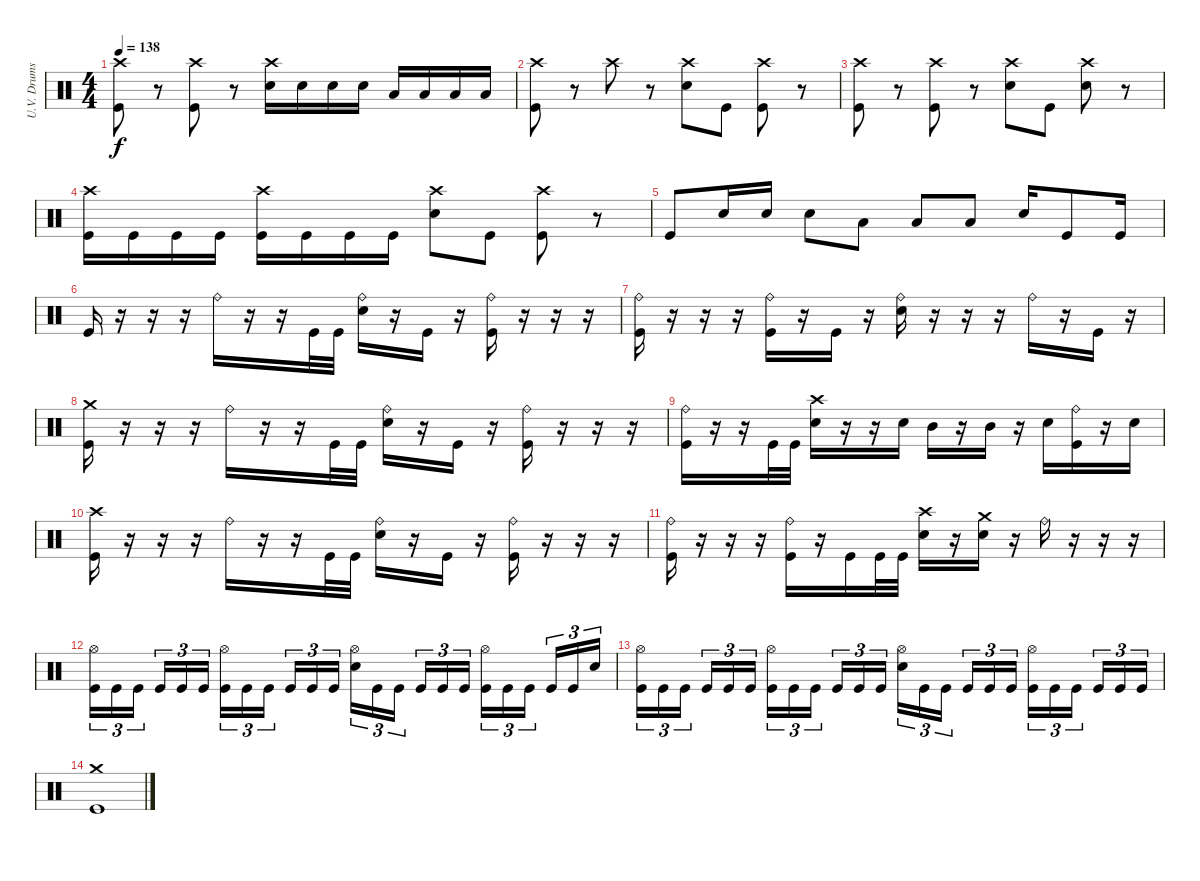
\track ("U.V. Drums" "U.V. Drums") {instrument percussion}
\staff {score}
\articulation defaults
\ts (4 4)
\tempo 138
\clef neutral
\ks c
("Crash high (hit)" "Kick (hit)").8{dy f} r.8 ("Crash high (hit)" "Kick (hit)").8 r.8 ("Crash high (hit)" "Electric Snare (hit)").16 "Electric Snare (hit)".16 "Electric Snare (hit)".16 "Electric Snare (hit)".16 "Low Tom (hit)".16 "Low Tom (hit)".16 "Low Tom (hit)".16 "Low Tom (hit)".16 |
("Crash high (hit)" "Kick (hit)").8 r.8 "Crash high (hit)".8 r.8 ("Crash high (hit)" "Electric Snare (hit)").8 "Kick (hit)".8 ("Crash high (hit)" "Kick (hit)").8 r.8 |
("Crash high (hit)" "Kick (hit)").8 r.8 ("Crash high (hit)" "Kick (hit)").8 r.8 ("Crash high (hit)" "Electric Snare (hit)").8 "Kick (hit)".8 ("Crash high (hit)" "Electric Snare (hit)").8 r.8 |
("Crash high (hit)" "Kick (hit)").16 "Kick (hit)".16 "Kick (hit)".16 "Kick (hit)".16 ("Crash high (hit)" "Kick (hit)").16 "Kick (hit)".16 "Kick (hit)".16 "Kick (hit)".16 ("Crash high (hit)" "Electric Snare (hit)").8 "Kick (hit)".8 ("Crash high (hit)" "Kick (hit)").8 r.8 |
"Kick (hit)".8 "Electric Snare (hit)".16 "Electric Snare (hit)".16 "Electric Snare (hit)".8 "Low Tom (hit)".8 "Low Tom (hit)".8 "Low Tom (hit)".8 "Electric Snare (hit)".16 "Kick (hit)".8 "Kick (hit)".16 |
"Kick (hit)".16 r.16 r.16 r.16 "Ride (bell)".16 r.16 r.16 "Kick (hit)".32 "Kick (hit)".32 ("Ride (bell)" "Electric Snare (hit)").16 r.16 "Kick (hit)".16 r.16 ("Ride (bell)" "Kick (hit)").16 r.16 r.16 r.16 |
("Ride (bell)" "Kick (hit)").16 r.16 r.16 r.16 ("Ride (bell)" "Kick (hit)").16 r.16 "Kick (hit)".16 r.16 ("Ride (bell)" "Electric Snare (hit)").16 r.16 r.16 r.16 "Ride (bell)".16 r.16 "Kick (hit)".16 r.16 |
("Crash medium (hit)" "Kick (hit)").16 r.16 r.16 r.16 "Ride (bell)".16 r.16 r.16 "Kick (hit)".32 "Kick (hit)".32 ("Ride (bell)" "Electric Snare (hit)").16 r.16 "Kick (hit)".16 r.16 ("Ride (bell)" "Kick (hit)").16 r.16 r.16 r.16 |
("Ride (bell)" "Kick (hit)").16 r.16 r.16 "Kick (hit)".32 "Kick (hit)".32 ("Crash high (hit)" "Electric Snare (hit)").16 r.16 r.16 "Electric Snare (hit)".16 "Mid Tom (hit)".16 r.16 "Mid Tom (hit)".16 r.16 "Electric Snare (hit)".16 ("Ride (bell)" "Kick (hit)").16 r.16 "Electric Snare (hit)".16 |
("Crash high (hit)" "Kick (hit)").16 r.16 r.16 r.16 "Ride (bell)".16 r.16 r.16 "Kick (hit)".32 "Kick (hit)".32 ("Ride (bell)" "Electric Snare (hit)").16 r.16 "Kick (hit)".16 r.16 ("Ride (bell)" "Kick (hit)").16 r.16 r.16 r.16 |
("Ride (bell)" "Kick (hit)").16 r.16 r.16 r.16 ("Ride (bell)" "Kick (hit)").16 r.16 "Kick (hit)".16 "Kick (hit)".32 "Kick (hit)".32 ("Crash high (hit)" "Electric Snare (hit)").16 r.16 ("Crash medium (hit)" "Electric Snare (hit)").16 r.16 "Ride (bell)".16 r.16 r.16 r.16 |
("Hi-Hat (open)" "Kick (hit)").16{tu (3 2)} "Kick (hit)".16{tu (3 2)} "Kick (hit)".16{tu (3 2)} "Kick (hit)".16{tu (3 2)} "Kick (hit)".16{tu (3 2)} "Kick (hit)".16{tu (3 2)} ("Hi-Hat (open)" "Kick (hit)").16{tu (3 2)} "Kick (hit)".16{tu (3 2)} "Kick (hit)".16{tu (3 2)} "Kick (hit)".16{tu (3 2)} "Kick (hit)".16{tu (3 2)} "Kick (hit)".16{tu (3 2)} ("Hi-Hat (open)" "Electric Snare (hit)").16{tu (3 2)} "Kick (hit)".16{tu (3 2)} "Kick (hit)".16{tu (3 2)} "Kick (hit)".16{tu (3 2)} "Kick (hit)".16{tu (3 2)} "Kick (hit)".16{tu (3 2)} ("Hi-Hat (open)" "Kick (hit)").16{tu (3 2)} "Kick (hit)".16{tu (3 2)} "Kick (hit)".16{tu (3 2)} "Kick (hit)".16{tu (3 2)} "Kick (hit)".16{tu (3 2)} "Snare (hit)".16{tu (3 2)} |
("Hi-Hat (open)" "Kick (hit)").16{tu (3 2)} "Kick (hit)".16{tu (3 2)} "Kick (hit)".16{tu (3 2)} "Kick (hit)".16{tu (3 2)} "Kick (hit)".16{tu (3 2)} "Kick (hit)".16{tu (3 2)} ("Hi-Hat (open)" "Kick (hit)").16{tu (3 2)} "Kick (hit)".16{tu (3 2)} "Kick (hit)".16{tu (3 2)} "Kick (hit)".16{tu (3 2)} "Kick (hit)".16{tu (3 2)} "Kick (hit)".16{tu (3 2)} ("Hi-Hat (open)" "Electric Snare (hit)").16{tu (3 2)} "Kick (hit)".16{tu (3 2)} "Kick (hit)".16{tu (3 2)} "Kick (hit)".16{tu (3 2)} "Kick (hit)".16{tu (3 2)} "Kick (hit)".16{tu (3 2)} ("Hi-Hat (open)" "Kick (hit)").16{tu (3 2)} "Kick (hit)".16{tu (3 2)} "Kick (hit)".16{tu (3 2)} "Kick (hit)".16{tu (3 2)} "Kick (hit)".16{tu (3 2)} "Kick (hit)".16{tu (3 2)} |
("Crash medium (hit)" "Kick (hit)").1
